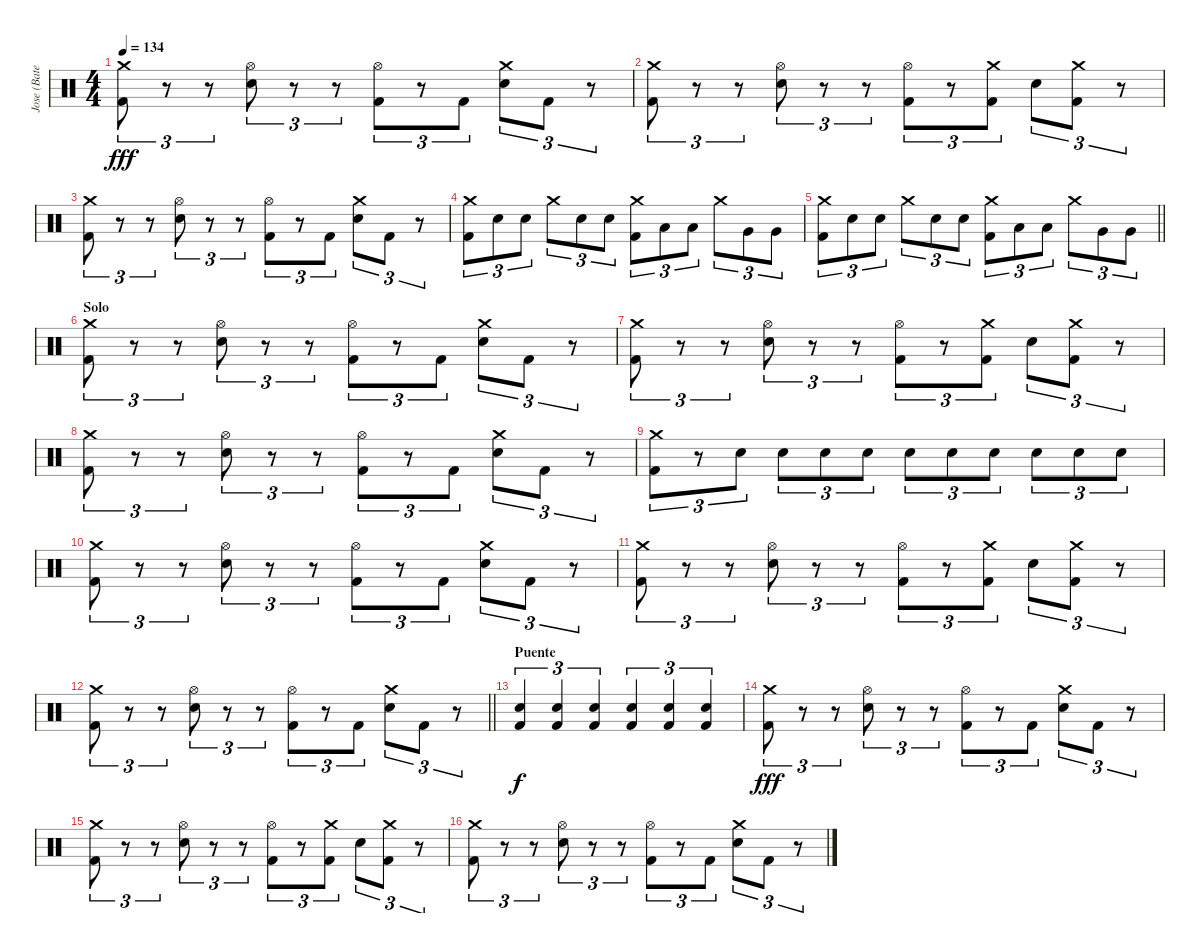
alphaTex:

\track ("Jose (Bateria)" "Jose (Bate") {instrument percussion}
\staff {score}
\articulation defaults
\ts (4 4)
\tempo 134
\clef neutral
\ks c
("Crash medium (hit)" "Kick (hit) 2").8{tu (3 2) dy fff} r.8{tu (3 2)} r.8{tu (3 2)} ("Hi-Hat (open)" "Snare (hit) 2").8{tu (3 2)} r.8{tu (3 2)} r.8{tu (3 2)} ("Hi-Hat (open)" "Kick (hit) 2").8{tu (3 2)} r.8{tu (3 2)} "Kick (hit) 2".8{tu (3 2)} ("Crash medium (hit)" "Snare (hit) 2").8{tu (3 2)} "Kick (hit) 2".8{tu (3 2)} r.8{tu (3 2)} |
("Crash medium (hit)" "Kick (hit) 2").8{tu (3 2)} r.8{tu (3 2)} r.8{tu (3 2)} ("Hi-Hat (open)" "Snare (hit) 2").8{tu (3 2)} r.8{tu (3 2)} r.8{tu (3 2)} ("Hi-Hat (open)" "Kick (hit) 2").8{tu (3 2)} r.8{tu (3 2)} ("Crash medium (hit)" "Kick (hit) 2").8{tu (3 2)} "Snare (hit) 2".8{tu (3 2)} ("Crash medium (hit)" "Kick (hit) 2").8{tu (3 2)} r.8{tu (3 2)} |
("Crash medium (hit)" "Kick (hit) 2").8{tu (3 2)} r.8{tu (3 2)} r.8{tu (3 2)} ("Hi-Hat (open)" "Snare (hit) 2").8{tu (3 2)} r.8{tu (3 2)} r.8{tu (3 2)} ("Hi-Hat (open)" "Kick (hit) 2").8{tu (3 2)} r.8{tu (3 2)} "Kick (hit) 2".8{tu (3 2)} ("Crash medium (hit)" "Snare (hit) 2").8{tu (3 2)} "Kick (hit) 2".8{tu (3 2)} r.8{tu (3 2)} |
("Crash medium (hit)" "Kick (hit) 2").8{tu (3 2)} "Snare (hit) 2".8{tu (3 2)} "Snare (hit) 2".8{tu (3 2)} "Crash medium (hit)".8{tu (3 2)} "Snare (hit) 2".8{tu (3 2)} "Snare (hit) 2".8{tu (3 2)} ("Crash medium (hit)" "Kick (hit) 2").8{tu (3 2)} "Low Tom (hit)".8{tu (3 2)} "Low Tom (hit)".8{tu (3 2)} "Crash medium (hit)".8{tu (3 2)} "Very Low Tom (hit)".8{tu (3 2)} "Very Low Tom (hit)".8{tu (3 2)} |
\barLineRight lightlight
("Crash medium (hit)" "Kick (hit) 2").8{tu (3 2)} "Snare (hit) 2".8{tu (3 2)} "Snare (hit) 2".8{tu (3 2)} "Crash medium (hit)".8{tu (3 2)} "Snare (hit) 2".8{tu (3 2)} "Snare (hit) 2".8{tu (3 2)} ("Crash medium (hit)" "Kick (hit) 2").8{tu (3 2)} "Low Tom (hit)".8{tu (3 2)} "Low Tom (hit)".8{tu (3 2)} "Crash medium (hit)".8{tu (3 2)} "Very Low Tom (hit)".8{tu (3 2)} "Very Low Tom (hit)".8{tu (3 2)} |
\section ("" "Solo")
("Crash medium (hit)" "Kick (hit) 2").8{tu (3 2)} r.8{tu (3 2)} r.8{tu (3 2)} ("Hi-Hat (open)" "Snare (hit) 2").8{tu (3 2)} r.8{tu (3 2)} r.8{tu (3 2)} ("Hi-Hat (open)" "Kick (hit) 2").8{tu (3 2)} r.8{tu (3 2)} "Kick (hit) 2".8{tu (3 2)} ("Crash medium (hit)" "Snare (hit) 2").8{tu (3 2)} "Kick (hit) 2".8{tu (3 2)} r.8{tu (3 2)} |
("Crash medium (hit)" "Kick (hit) 2").8{tu (3 2)} r.8{tu (3 2)} r.8{tu (3 2)} ("Hi-Hat (open)" "Snare (hit) 2").8{tu (3 2)} r.8{tu (3 2)} r.8{tu (3 2)} ("Hi-Hat (open)" "Kick (hit) 2").8{tu (3 2)} r.8{tu (3 2)} ("Crash medium (hit)" "Kick (hit) 2").8{tu (3 2)} "Snare (hit) 2".8{tu (3 2)} ("Crash medium (hit)" "Kick (hit) 2").8{tu (3 2)} r.8{tu (3 2)} |
("Crash medium (hit)" "Kick (hit) 2").8{tu (3 2)} r.8{tu (3 2)} r.8{tu (3 2)} ("Hi-Hat (open)" "Snare (hit) 2").8{tu (3 2)} r.8{tu (3 2)} r.8{tu (3 2)} ("Hi-Hat (open)" "Kick (hit) 2").8{tu (3 2)} r.8{tu (3 2)} "Kick (hit) 2".8{tu (3 2)} ("Crash medium (hit)" "Snare (hit) 2").8{tu (3 2)} "Kick (hit) 2".8{tu (3 2)} r.8{tu (3 2)} |
("Crash medium (hit)" "Kick (hit) 2").8{tu (3 2)} r.8{tu (3 2)} "Snare (hit) 2".8{tu (3 2)} "Snare (hit) 2".8{tu (3 2)} "Snare (hit) 2".8{tu (3 2)} "Snare (hit) 2".8{tu (3 2)} "Snare (hit) 2".8{tu (3 2)} "Snare (hit) 2".8{tu (3 2)} "Snare (hit) 2".8{tu (3 2)} "Snare (hit) 2".8{tu (3 2)} "Snare (hit) 2".8{tu (3 2)} "Snare (hit) 2".8{tu (3 2)} |
("Crash medium (hit)" "Kick (hit) 2").8{tu (3 2)} r.8{tu (3 2)} r.8{tu (3 2)} ("Hi-Hat (open)" "Snare (hit) 2").8{tu (3 2)} r.8{tu (3 2)} r.8{tu (3 2)} ("Hi-Hat (open)" "Kick (hit) 2").8{tu (3 2)} r.8{tu (3 2)} "Kick (hit) 2".8{tu (3 2)} ("Crash medium (hit)" "Snare (hit) 2").8{tu (3 2)} "Kick (hit) 2".8{tu (3 2)} r.8{tu (3 2)} |
("Crash medium (hit)" "Kick (hit) 2").8{tu (3 2)} r.8{tu (3 2)} r.8{tu (3 2)} ("Hi-Hat (open)" "Snare (hit) 2").8{tu (3 2)} r.8{tu (3 2)} r.8{tu (3 2)} ("Hi-Hat (open)" "Kick (hit) 2").8{tu (3 2)} r.8{tu (3 2)} ("Crash medium (hit)" "Kick (hit) 2").8{tu (3 2)} "Snare (hit) 2".8{tu (3 2)} ("Crash medium (hit)" "Kick (hit) 2").8{tu (3 2)} r.8{tu (3 2)} |
\barLineRight lightlight
("Crash medium (hit)" "Kick (hit) 2").8{tu (3 2)} r.8{tu (3 2)} r.8{tu (3 2)} ("Hi-Hat (open)" "Snare (hit) 2").8{tu (3 2)} r.8{tu (3 2)} r.8{tu (3 2)} ("Hi-Hat (open)" "Kick (hit) 2").8{tu (3 2)} r.8{tu (3 2)} "Kick (hit) 2".8{tu (3 2)} ("Crash medium (hit)" "Snare (hit) 2").8{tu (3 2)} "Kick (hit) 2".8{tu (3 2)} r.8{tu (3 2)} |
\section ("" "Puente")
("Snare (hit) 2" "Kick (hit) 2").4{tu (3 2) dy f} ("Snare (hit) 2" "Kick (hit) 2").4{tu (3 2)} ("Snare (hit) 2" "Kick (hit) 2").4{tu (3 2)} ("Snare (hit) 2" "Kick (hit) 2").4{tu (3 2)} ("Snare (hit) 2" "Kick (hit) 2").4{tu (3 2)} ("Snare (hit) 2" "Kick (hit) 2").4{tu (3 2)} |
("Crash medium (hit)" "Kick (hit) 2").8{tu (3 2) dy fff} r.8{tu (3 2)} r.8{tu (3 2)} ("Hi-Hat (open)" "Snare (hit) 2").8{tu (3 2)} r.8{tu (3 2)} r.8{tu (3 2)} ("Hi-Hat (open)" "Kick (hit) 2").8{tu (3 2)} r.8{tu (3 2)} "Kick (hit) 2".8{tu (3 2)} ("Crash medium (hit)" "Snare (hit) 2").8{tu (3 2)} "Kick (hit) 2".8{tu (3 2)} r.8{tu (3 2)} |
("Crash medium (hit)" "Kick (hit) 2").8{tu (3 2)} r.8{tu (3 2)} r.8{tu (3 2)} ("Hi-Hat (open)" "Snare (hit) 2").8{tu (3 2)} r.8{tu (3 2)} r.8{tu (3 2)} ("Hi-Hat (open)" "Kick (hit) 2").8{tu (3 2)} r.8{tu (3 2)} ("Crash medium (hit)" "Kick (hit) 2").8{tu (3 2)} "Snare (hit) 2".8{tu (3 2)} ("Crash medium (hit)" "Kick (hit) 2").8{tu (3 2)} r.8{tu (3 2)} |
("Crash medium (hit)" "Kick (hit) 2").8{tu (3 2)} r.8{tu (3 2)} r.8{tu (3 2)} ("Hi-Hat (open)" "Snare (hit) 2").8{tu (3 2)} r.8{tu (3 2)} r.8{tu (3 2)} ("Hi-Hat (open)" "Kick (hit) 2").8{tu (3 2)} r.8{tu (3 2)} "Kick (hit) 2".8{tu (3 2)} ("Crash medium (hit)" "Snare (hit) 2").8{tu (3 2)} "Kick (hit) 2".8{tu (3 2)} r.8{tu (3 2)}
